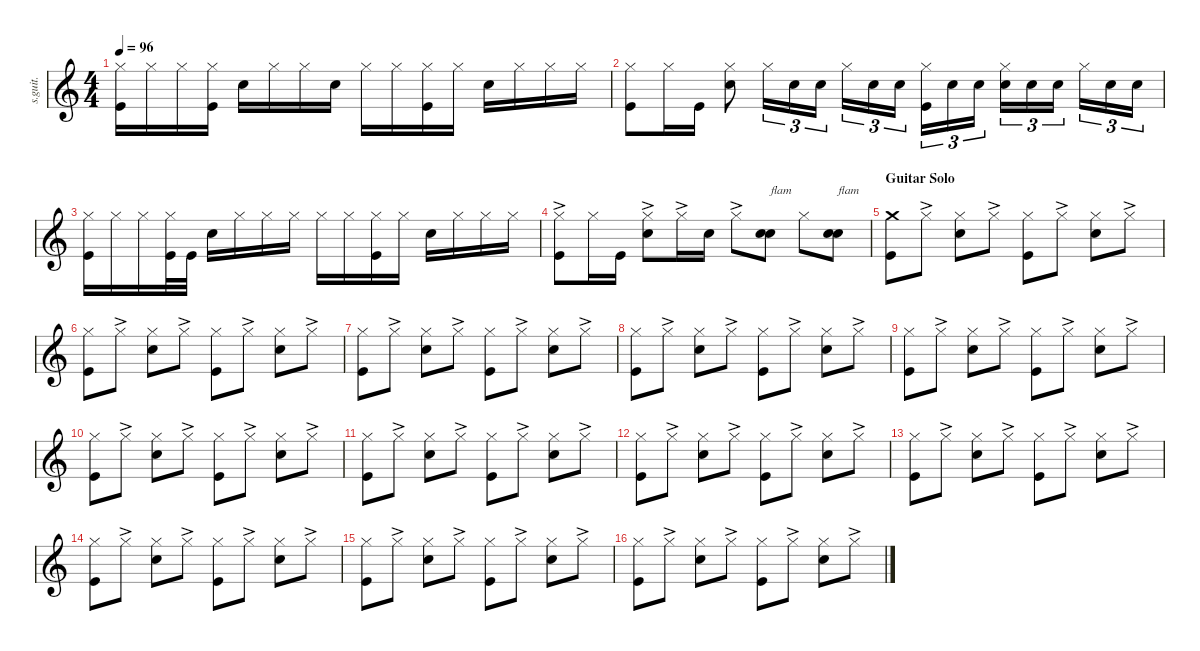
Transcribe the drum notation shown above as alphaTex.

\defaultSystemsLayout 4
\hideDynamics
\bracketExtendMode nobrackets
\track ("Chad Smith" "s.guit.") {instrument percussion}
\staff {score}
\articulation defaults
\ts (4 4)
\tempo 96
\clef g2
\ks c
("Hi-Hat (closed)" "Kick (hit)").16{dy f} "Hi-Hat (closed)".16 "Hi-Hat (closed)".16 ("Hi-Hat (closed)" "Kick (hit)").16 "Snare (hit) 2".16 "Hi-Hat (closed)".16 "Hi-Hat (closed)".16 "Snare (hit) 2".16 "Hi-Hat (closed)".16 "Hi-Hat (closed)".16 ("Hi-Hat (closed)" "Kick (hit)").16 "Hi-Hat (closed)".16 "Snare (hit) 2".16 "Hi-Hat (closed)".16 "Hi-Hat (closed)".16 "Hi-Hat (closed)".16 |
("Hi-Hat (closed)" "Kick (hit)").8 "Hi-Hat (closed)".16 "Kick (hit)".16 ("Hi-Hat (closed)" "Snare (hit) 2").8 "Hi-Hat (closed)".16{tu (3 2)} "Snare (hit) 2".16{tu (3 2)} "Snare (hit) 2".16{tu (3 2)} "Hi-Hat (closed)".16{tu (3 2)} "Snare (hit) 2".16{tu (3 2)} "Snare (hit) 2".16{tu (3 2)} ("Hi-Hat (closed)" "Kick (hit)").16{tu (3 2)} "Snare (hit) 2".16{tu (3 2)} "Snare (hit) 2".16{tu (3 2)} ("Hi-Hat (closed)" "Snare (hit) 2").16{tu (3 2)} "Snare (hit) 2".16{tu (3 2)} "Snare (hit) 2".16{tu (3 2)} "Hi-Hat (closed)".16{tu (3 2)} "Snare (hit) 2".16{tu (3 2)} "Snare (hit) 2".16{tu (3 2)} |
("Hi-Hat (closed)" "Kick (hit)").16 "Hi-Hat (closed)".16 "Hi-Hat (closed)".16 ("Hi-Hat (closed)" "Kick (hit)").32 "Kick (hit)".32 "Snare (hit) 2".16 "Hi-Hat (closed)".16 "Hi-Hat (closed)".16 "Hi-Hat (closed)".16 "Hi-Hat (closed)".16 "Hi-Hat (closed)".16 ("Hi-Hat (closed)" "Kick (hit)").16 "Hi-Hat (closed)".16 "Snare (hit) 2".16 "Hi-Hat (closed)".16 "Hi-Hat (closed)".16 "Hi-Hat (closed)".16 |
("Hi-Hat (closed)"{ac} "Kick (hit)").8 "Hi-Hat (closed)".16 "Kick (hit)".16 ("Hi-Hat (closed)"{ac} "Snare (hit) 2").8 "Hi-Hat (closed)"{ac}.16 "Snare (hit) 2".16 "Hi-Hat (closed)"{ac}.8 ("Snare (hit) 2" "Snare (hit) 2").8{bd 30 txt "flam"} "Hi-Hat (closed)".8 ("Snare (hit) 2" "Snare (hit) 2").8{bd 30 txt "flam"} |
\section ("" "Guitar Solo")
("Crash medium (hit)" "Kick (hit)").8 "Hi-Hat (closed)"{ac}.8 ("Hi-Hat (closed)" "Snare (hit) 2").8 "Hi-Hat (closed)"{ac}.8 ("Hi-Hat (closed)" "Kick (hit)").8 "Hi-Hat (closed)"{ac}.8 ("Hi-Hat (closed)" "Snare (hit) 2").8 "Hi-Hat (closed)"{ac}.8 |
("Hi-Hat (closed)" "Kick (hit)").8 "Hi-Hat (closed)"{ac}.8 ("Hi-Hat (closed)" "Snare (hit) 2").8 "Hi-Hat (closed)"{ac}.8 ("Hi-Hat (closed)" "Kick (hit)").8 "Hi-Hat (closed)"{ac}.8 ("Hi-Hat (closed)" "Snare (hit) 2").8 "Hi-Hat (closed)"{ac}.8 |
("Hi-Hat (closed)" "Kick (hit)").8 "Hi-Hat (closed)"{ac}.8 ("Hi-Hat (closed)" "Snare (hit) 2").8 "Hi-Hat (closed)"{ac}.8 ("Hi-Hat (closed)" "Kick (hit)").8 "Hi-Hat (closed)"{ac}.8 ("Hi-Hat (closed)" "Snare (hit) 2").8 "Hi-Hat (closed)"{ac}.8 |
("Hi-Hat (closed)" "Kick (hit)").8 "Hi-Hat (closed)"{ac}.8 ("Hi-Hat (closed)" "Snare (hit) 2").8 "Hi-Hat (closed)"{ac}.8 ("Hi-Hat (closed)" "Kick (hit)").8 "Hi-Hat (closed)"{ac}.8 ("Hi-Hat (closed)" "Snare (hit) 2").8 "Hi-Hat (closed)"{ac}.8 |
("Hi-Hat (closed)" "Kick (hit)").8 "Hi-Hat (closed)"{ac}.8 ("Hi-Hat (closed)" "Snare (hit) 2").8 "Hi-Hat (closed)"{ac}.8 ("Hi-Hat (closed)" "Kick (hit)").8 "Hi-Hat (closed)"{ac}.8 ("Hi-Hat (closed)" "Snare (hit) 2").8 "Hi-Hat (closed)"{ac}.8 |
("Hi-Hat (closed)" "Kick (hit)").8 "Hi-Hat (closed)"{ac}.8 ("Hi-Hat (closed)" "Snare (hit) 2").8 "Hi-Hat (closed)"{ac}.8 ("Hi-Hat (closed)" "Kick (hit)").8 "Hi-Hat (closed)"{ac}.8 ("Hi-Hat (closed)" "Snare (hit) 2").8 "Hi-Hat (closed)"{ac}.8 |
("Hi-Hat (closed)" "Kick (hit)").8 "Hi-Hat (closed)"{ac}.8 ("Hi-Hat (closed)" "Snare (hit) 2").8 "Hi-Hat (closed)"{ac}.8 ("Hi-Hat (closed)" "Kick (hit)").8 "Hi-Hat (closed)"{ac}.8 ("Hi-Hat (closed)" "Snare (hit) 2").8 "Hi-Hat (closed)"{ac}.8 |
("Hi-Hat (closed)" "Kick (hit)").8 "Hi-Hat (closed)"{ac}.8 ("Hi-Hat (closed)" "Snare (hit) 2").8 "Hi-Hat (closed)"{ac}.8 ("Hi-Hat (closed)" "Kick (hit)").8 "Hi-Hat (closed)"{ac}.8 ("Hi-Hat (closed)" "Snare (hit) 2").8 "Hi-Hat (closed)"{ac}.8 |
("Hi-Hat (closed)" "Kick (hit)").8 "Hi-Hat (closed)"{ac}.8 ("Hi-Hat (closed)" "Snare (hit) 2").8 "Hi-Hat (closed)"{ac}.8 ("Hi-Hat (closed)" "Kick (hit)").8 "Hi-Hat (closed)"{ac}.8 ("Hi-Hat (closed)" "Snare (hit) 2").8 "Hi-Hat (closed)"{ac}.8 |
("Hi-Hat (closed)" "Kick (hit)").8 "Hi-Hat (closed)"{ac}.8 ("Hi-Hat (closed)" "Snare (hit) 2").8 "Hi-Hat (closed)"{ac}.8 ("Hi-Hat (closed)" "Kick (hit)").8 "Hi-Hat (closed)"{ac}.8 ("Hi-Hat (closed)" "Snare (hit) 2").8 "Hi-Hat (closed)"{ac}.8 |
("Hi-Hat (closed)" "Kick (hit)").8 "Hi-Hat (closed)"{ac}.8 ("Hi-Hat (closed)" "Snare (hit) 2").8 "Hi-Hat (closed)"{ac}.8 ("Hi-Hat (closed)" "Kick (hit)").8 "Hi-Hat (closed)"{ac}.8 ("Hi-Hat (closed)" "Snare (hit) 2").8 "Hi-Hat (closed)"{ac}.8 |
("Hi-Hat (closed)" "Kick (hit)").8 "Hi-Hat (closed)"{ac}.8 ("Hi-Hat (closed)" "Snare (hit) 2").8 "Hi-Hat (closed)"{ac}.8 ("Hi-Hat (closed)" "Kick (hit)").8 "Hi-Hat (closed)"{ac}.8 ("Hi-Hat (closed)" "Snare (hit) 2").8 "Hi-Hat (closed)"{ac}.8
